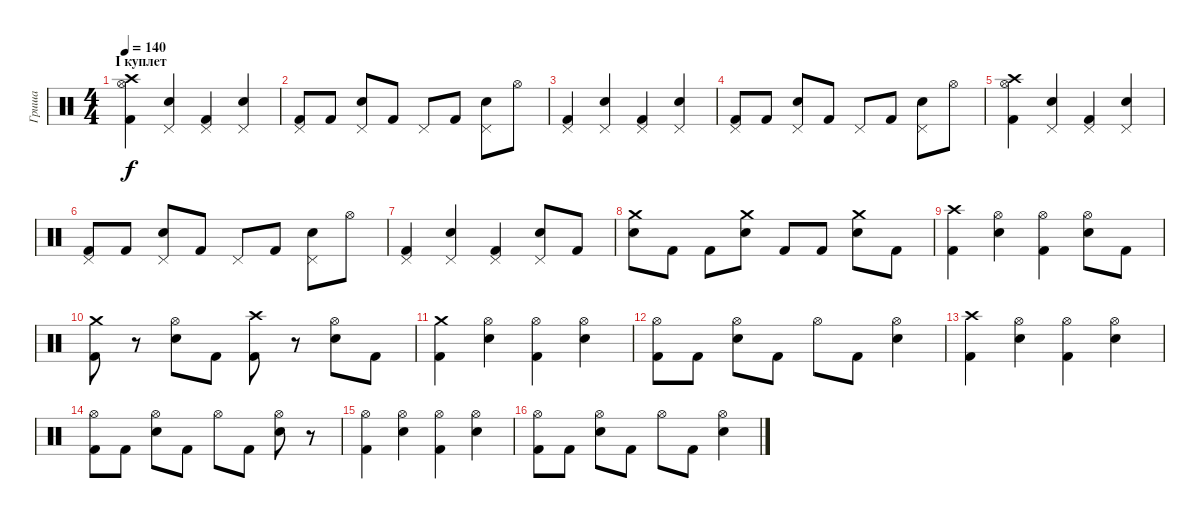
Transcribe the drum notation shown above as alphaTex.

\track ("Гриша" "Гриша") {instrument percussion}
\staff {score}
\articulation defaults
\ts (4 4)
\section ("" "I куплет")
\tempo 140
\clef neutral
\ks c
("Crash high (hit)" "Kick (hit) 2" "Hi-Hat (open)").4{dy f} ("Pedal Hi-Hat (hit)" "Electric Snare (hit)").4 ("Pedal Hi-Hat (hit)" "Kick (hit) 2").4 ("Pedal Hi-Hat (hit)" "Electric Snare (hit)").4 |
("Pedal Hi-Hat (hit)" "Kick (hit) 2").8 "Kick (hit) 2".8 ("Pedal Hi-Hat (hit)" "Electric Snare (hit)").8 "Kick (hit) 2".8 "Pedal Hi-Hat (hit)".8 "Kick (hit) 2".8 ("Pedal Hi-Hat (hit)" "Electric Snare (hit)").8 "Hi-Hat (open)".8 |
("Pedal Hi-Hat (hit)" "Kick (hit) 2").4 ("Pedal Hi-Hat (hit)" "Electric Snare (hit)").4 ("Pedal Hi-Hat (hit)" "Kick (hit) 2").4 ("Pedal Hi-Hat (hit)" "Electric Snare (hit)").4 |
("Pedal Hi-Hat (hit)" "Kick (hit) 2").8 "Kick (hit) 2".8 ("Pedal Hi-Hat (hit)" "Electric Snare (hit)").8 "Kick (hit) 2".8 "Pedal Hi-Hat (hit)".8 "Kick (hit) 2".8 ("Pedal Hi-Hat (hit)" "Electric Snare (hit)").8 "Hi-Hat (open)".8 |
("Crash high (hit)" "Kick (hit) 2" "Hi-Hat (open)").4 ("Pedal Hi-Hat (hit)" "Electric Snare (hit)").4 ("Pedal Hi-Hat (hit)" "Kick (hit) 2").4 ("Pedal Hi-Hat (hit)" "Electric Snare (hit)").4 |
("Pedal Hi-Hat (hit)" "Kick (hit) 2").8 "Kick (hit) 2".8 ("Pedal Hi-Hat (hit)" "Electric Snare (hit)").8 "Kick (hit) 2".8 "Pedal Hi-Hat (hit)".8 "Kick (hit) 2".8 ("Pedal Hi-Hat (hit)" "Electric Snare (hit)").8 "Hi-Hat (open)".8 |
("Pedal Hi-Hat (hit)" "Kick (hit) 2").4 ("Pedal Hi-Hat (hit)" "Electric Snare (hit)").4 ("Pedal Hi-Hat (hit)" "Kick (hit) 2").4 ("Pedal Hi-Hat (hit)" "Electric Snare (hit)").8 "Kick (hit) 2".8 |
("Crash medium (hit)" "Electric Snare (hit)").8 "Kick (hit) 2".8 "Kick (hit) 2".8 ("Crash medium (hit)" "Electric Snare (hit)").8 "Kick (hit) 2".8 "Kick (hit) 2".8 ("Crash medium (hit)" "Electric Snare (hit)").8 "Kick (hit) 2".8 |
("Crash high (hit)" "Kick (hit) 2").4 ("Hi-Hat (open)" "Electric Snare (hit)").4 ("Hi-Hat (open)" "Kick (hit) 2").4 ("Hi-Hat (open)" "Electric Snare (hit)").8 "Kick (hit) 2".8 |
("Crash medium (hit)" "Kick (hit) 2").8 r.8 ("Hi-Hat (open)" "Electric Snare (hit)").8 "Kick (hit) 2".8 ("Crash high (hit)" "Kick (hit) 2").8 r.8 ("Hi-Hat (open)" "Electric Snare (hit)").8 "Kick (hit) 2".8 |
("Crash medium (hit)" "Kick (hit) 2").4 ("Hi-Hat (open)" "Electric Snare (hit)").4 ("Hi-Hat (open)" "Kick (hit) 2").4 ("Hi-Hat (open)" "Electric Snare (hit)").4 |
("Hi-Hat (open)" "Kick (hit) 2").8 "Kick (hit) 2".8 ("Hi-Hat (open)" "Electric Snare (hit)").8 "Kick (hit) 2".8 "Hi-Hat (open)".8 "Kick (hit) 2".8 ("Hi-Hat (open)" "Electric Snare (hit)").4 |
("Crash high (hit)" "Kick (hit) 2").4 ("Hi-Hat (open)" "Electric Snare (hit)").4 ("Hi-Hat (open)" "Kick (hit) 2").4 ("Hi-Hat (open)" "Electric Snare (hit)").4 |
("Hi-Hat (open)" "Kick (hit) 2").8 "Kick (hit) 2".8 ("Hi-Hat (open)" "Electric Snare (hit)").8 "Kick (hit) 2".8 "Hi-Hat (open)".8 "Kick (hit) 2".8 ("Hi-Hat (open)" "Electric Snare (hit)").8 r.8 |
("Hi-Hat (open)" "Kick (hit) 2").4 ("Hi-Hat (open)" "Electric Snare (hit)").4 ("Hi-Hat (open)" "Kick (hit) 2").4 ("Hi-Hat (open)" "Electric Snare (hit)").4 |
("Hi-Hat (open)" "Kick (hit) 2").8 "Kick (hit) 2".8 ("Hi-Hat (open)" "Electric Snare (hit)").8 "Kick (hit) 2".8 "Hi-Hat (open)".8 "Kick (hit) 2".8 ("Hi-Hat (open)" "Electric Snare (hit)").4
